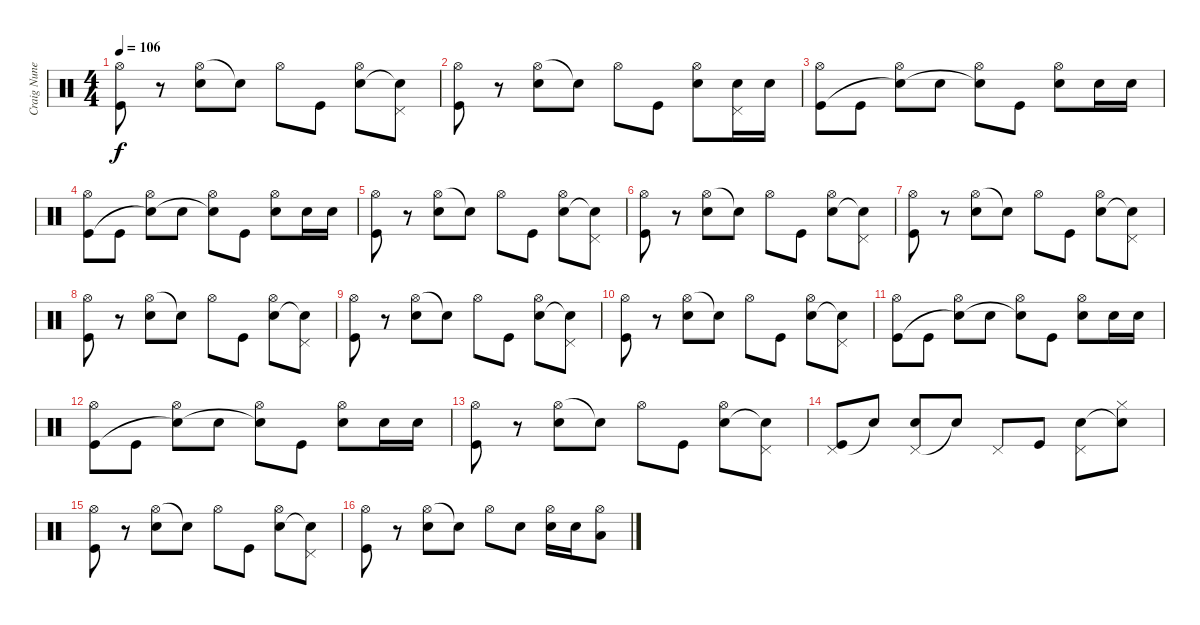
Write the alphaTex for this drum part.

\track ("Craig Nunenmacher (Drums)" "Craig Nune") {instrument percussion}
\staff {score}
\articulation defaults
\ts (4 4)
\tempo 106
\clef neutral
\ks c
("Hi-Hat (open)" "Kick (hit)").8{dy f} r.8 ("Hi-Hat (open)" "Electric Snare (hit)").8 "Snare (hit)"{t}.8 "Hi-Hat (open)".8 "Kick (hit)".8 ("Hi-Hat (open)" "Electric Snare (hit)").8 ("Pedal Hi-Hat (hit)" "Snare (hit)"{t}).8 |
("Hi-Hat (open)" "Kick (hit)").8 r.8 ("Hi-Hat (open)" "Electric Snare (hit)").8 "Snare (hit)"{t}.8 "Hi-Hat (open)".8 "Kick (hit)".8 ("Hi-Hat (open)" "Electric Snare (hit)").8 ("Pedal Hi-Hat (hit)" "Electric Snare (hit)").16 "Electric Snare (hit)".16 |
("Hi-Hat (open)" "Kick (hit)").8 "Kick (hit)".8 ("Hi-Hat (open)" "Snare (hit)"{t}).8 "Electric Snare (hit)".8 ("Hi-Hat (open)" "Snare (hit)"{t}).8 "Kick (hit)".8 ("Hi-Hat (open)" "Electric Snare (hit)").8 "Electric Snare (hit)".16 "Electric Snare (hit)".16 |
("Hi-Hat (open)" "Kick (hit)").8 "Kick (hit)".8 ("Hi-Hat (open)" "Snare (hit)"{t}).8 "Electric Snare (hit)".8 ("Hi-Hat (open)" "Snare (hit)"{t}).8 "Kick (hit)".8 ("Hi-Hat (open)" "Electric Snare (hit)").8 "Electric Snare (hit)".16 "Electric Snare (hit)".16 |
("Hi-Hat (open)" "Kick (hit)").8 r.8 ("Hi-Hat (open)" "Electric Snare (hit)").8 "Snare (hit)"{t}.8 "Hi-Hat (open)".8 "Kick (hit)".8 ("Hi-Hat (open)" "Electric Snare (hit)").8 ("Pedal Hi-Hat (hit)" "Snare (hit)"{t}).8 |
("Hi-Hat (open)" "Kick (hit)").8 r.8 ("Hi-Hat (open)" "Electric Snare (hit)").8 "Snare (hit)"{t}.8 "Hi-Hat (open)".8 "Kick (hit)".8 ("Hi-Hat (open)" "Electric Snare (hit)").8 ("Pedal Hi-Hat (hit)" "Snare (hit)"{t}).8 |
("Hi-Hat (open)" "Kick (hit)").8 r.8 ("Hi-Hat (open)" "Electric Snare (hit)").8 "Snare (hit)"{t}.8 "Hi-Hat (open)".8 "Kick (hit)".8 ("Hi-Hat (open)" "Electric Snare (hit)").8 ("Pedal Hi-Hat (hit)" "Snare (hit)"{t}).8 |
("Hi-Hat (open)" "Kick (hit)").8 r.8 ("Hi-Hat (open)" "Electric Snare (hit)").8 "Snare (hit)"{t}.8 "Hi-Hat (open)".8 "Kick (hit)".8 ("Hi-Hat (open)" "Electric Snare (hit)").8 ("Pedal Hi-Hat (hit)" "Snare (hit)"{t}).8 |
("Hi-Hat (open)" "Kick (hit)").8 r.8 ("Hi-Hat (open)" "Electric Snare (hit)").8 "Snare (hit)"{t}.8 "Hi-Hat (open)".8 "Kick (hit)".8 ("Hi-Hat (open)" "Electric Snare (hit)").8 ("Pedal Hi-Hat (hit)" "Snare (hit)"{t}).8 |
("Hi-Hat (open)" "Kick (hit)").8 r.8 ("Hi-Hat (open)" "Electric Snare (hit)").8 "Snare (hit)"{t}.8 "Hi-Hat (open)".8 "Kick (hit)".8 ("Hi-Hat (open)" "Electric Snare (hit)").8 ("Pedal Hi-Hat (hit)" "Snare (hit)"{t}).8 |
("Hi-Hat (open)" "Kick (hit)").8 "Kick (hit)".8 ("Hi-Hat (open)" "Snare (hit)"{t}).8 "Electric Snare (hit)".8 ("Hi-Hat (open)" "Snare (hit)"{t}).8 "Kick (hit)".8 ("Hi-Hat (open)" "Electric Snare (hit)").8 "Electric Snare (hit)".16 "Electric Snare (hit)".16 |
("Hi-Hat (open)" "Kick (hit)").8 "Kick (hit)".8 ("Hi-Hat (open)" "Snare (hit)"{t}).8 "Electric Snare (hit)".8 ("Hi-Hat (open)" "Snare (hit)"{t}).8 "Kick (hit)".8 ("Hi-Hat (open)" "Electric Snare (hit)").8 "Electric Snare (hit)".16 "Electric Snare (hit)".16 |
("Hi-Hat (open)" "Kick (hit)").8 r.8 ("Hi-Hat (open)" "Electric Snare (hit)").8 "Snare (hit)"{t}.8 "Hi-Hat (open)".8 "Kick (hit)".8 ("Hi-Hat (open)" "Electric Snare (hit)").8 ("Pedal Hi-Hat (hit)" "Snare (hit)"{t}).8 |
("Pedal Hi-Hat (hit)" "Kick (hit)").8 "Snare (hit)"{t}.8 ("Pedal Hi-Hat (hit)" "Electric Snare (hit)").8 "Snare (hit)"{t}.8 "Pedal Hi-Hat (hit)".8 "Kick (hit)".8 ("Pedal Hi-Hat (hit)" "Electric Snare (hit)").8 ("Hi-Hat (closed)" "Snare (hit)"{t}).8 |
("Hi-Hat (open)" "Kick (hit)").8 r.8 ("Hi-Hat (open)" "Electric Snare (hit)").8 "Snare (hit)"{t}.8 "Hi-Hat (open)".8 "Kick (hit)".8 ("Hi-Hat (open)" "Electric Snare (hit)").8 ("Pedal Hi-Hat (hit)" "Snare (hit)"{t}).8 |
("Hi-Hat (open)" "Kick (hit)").8 r.8 ("Hi-Hat (open)" "Electric Snare (hit)").8 "Snare (hit)"{t}.8 "Hi-Hat (open)".8 "Electric Snare (hit)".8 ("Hi-Hat (open)" "Electric Snare (hit)").16 "Electric Snare (hit)".16 ("Hi-Hat (open)" "Low Floor Tom (hit)").8
